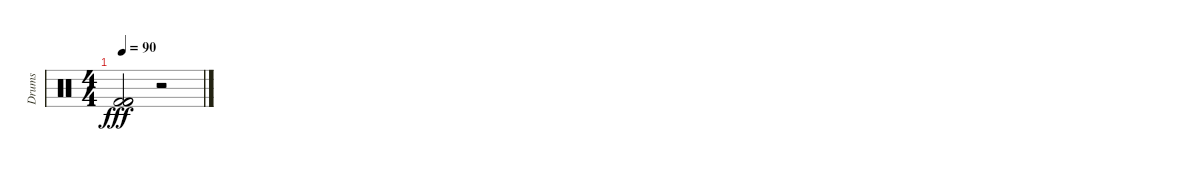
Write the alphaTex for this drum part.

\track ("Drums" "Drums") {instrument percussion}
\staff {score}
\articulation defaults
\ts (4 4)
\tempo 90
\clef neutral
\ks c
("Kick (hit) 2" "Kick (hit) 2" "Kick (hit) 2").2{dy fff} r.2
